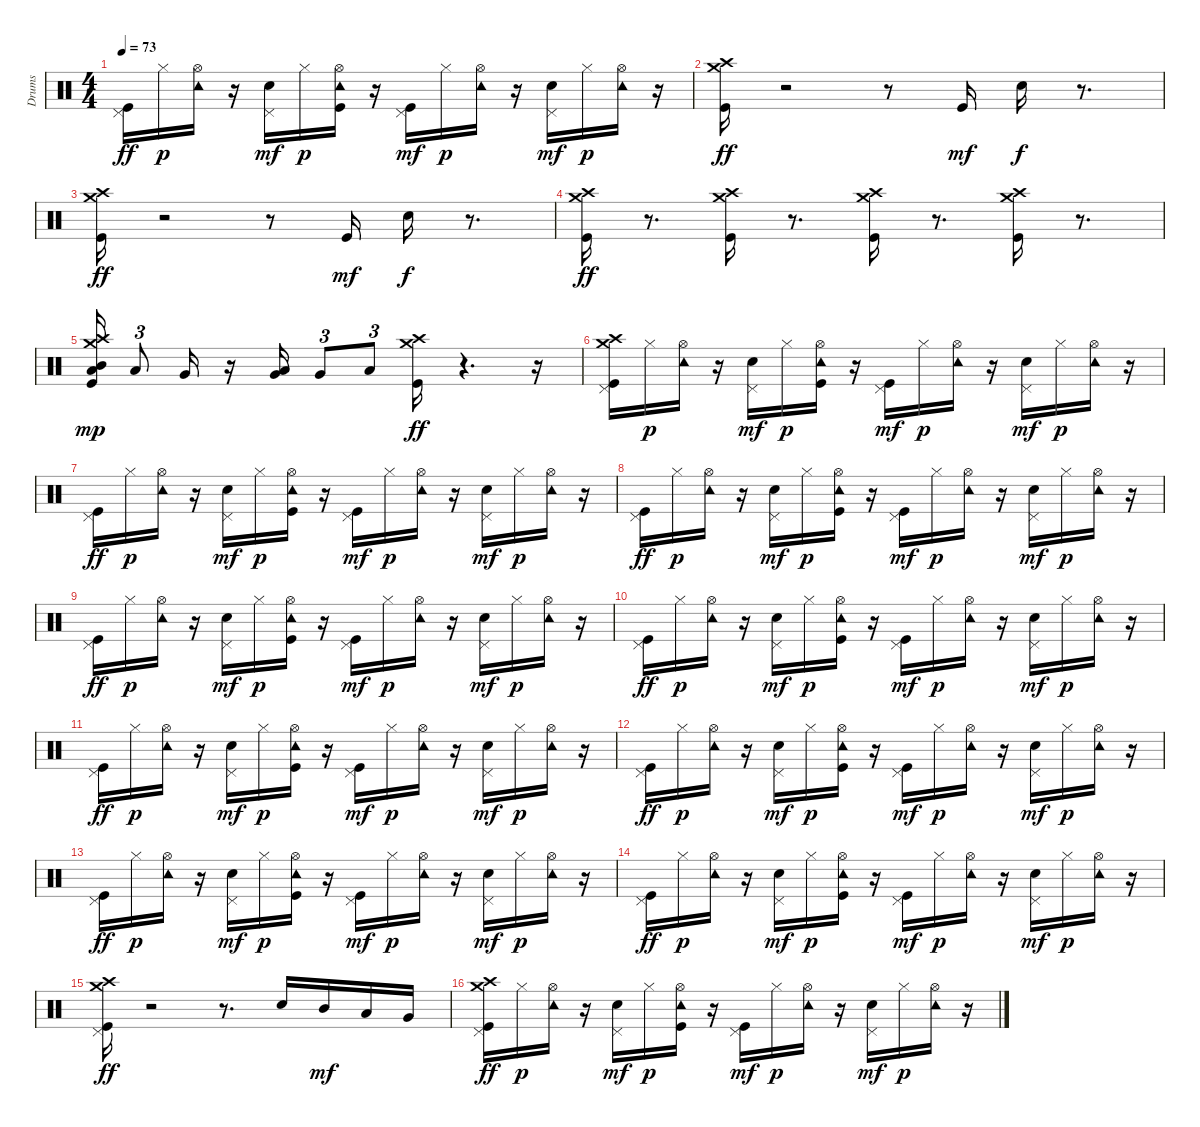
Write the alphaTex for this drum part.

\track ("Drums" "Drums") {instrument percussion}
\staff {score}
\articulation defaults
\ts (4 4)
\tempo 73
\clef neutral
\ks c
("Pedal Hi-Hat (hit)" "Kick (hit)").16{dy ff} "Hi-Hat (closed)".16{dy p} ("Tambourine (hit)" "Hi-Hat (open)").16 r.16 ("Pedal Hi-Hat (hit)" "Snare (hit) 2").16{dy mf} "Hi-Hat (closed)".16{dy p} ("Tambourine (hit)" "Hi-Hat (open)" "Kick (hit)").16 r.16 ("Pedal Hi-Hat (hit)" "Kick (hit)").16{dy mf} "Hi-Hat (closed)".16{dy p} ("Tambourine (hit)" "Hi-Hat (open)").16 r.16 ("Pedal Hi-Hat (hit)" "Snare (hit) 2").16{dy mf} "Hi-Hat (closed)".16{dy p} ("Tambourine (hit)" "Hi-Hat (open)").16 r.16 |
("Crash medium (hit)" "Crash high (hit)" "Kick (hit)").16{dy ff} r.2 r.8 "Kick (hit)".16{dy mf} "Snare (hit) 2".16{dy f} r.8{d} |
("Crash high (hit)" "Crash medium (hit)" "Kick (hit)").16{dy ff} r.2 r.8 "Kick (hit)".16{dy mf} "Snare (hit) 2".16{dy f} r.8{d} |
("Crash high (hit)" "Crash medium (hit)" "Kick (hit)").16{dy ff} r.8{d} ("Crash medium (hit)" "Crash high (hit)" "Kick (hit)").16 r.8{d} ("Crash medium (hit)" "Crash high (hit)" "Kick (hit)").16 r.8{d} ("Crash medium (hit)" "Crash high (hit)" "Kick (hit)").16 r.8{d} |
("Crash medium (hit)" "Crash high (hit)" "Low Tom (hit)" "Kick (hit)" "Mid Tom (hit)").16{dy mp} "Low Tom (hit)".8{tu (3 2)} "Very Low Tom (hit)".16 r.16 ("Very Low Tom (hit)" "Low Tom (hit)").16 "Very Low Tom (hit)".8{tu (3 2)} "Low Floor Tom (hit)".8{tu (3 2)} ("Crash medium (hit)" "Crash high (hit)" "Kick (hit)").16{dy ff} r.4{d} r.16 |
("Crash high (hit)" "Crash medium (hit)" "Pedal Hi-Hat (hit)" "Kick (hit)").16 "Hi-Hat (closed)".16{dy p} ("Tambourine (hit)" "Hi-Hat (open)").16 r.16 ("Pedal Hi-Hat (hit)" "Snare (hit) 2").16{dy mf} "Hi-Hat (closed)".16{dy p} ("Tambourine (hit)" "Hi-Hat (open)" "Kick (hit)").16 r.16 ("Pedal Hi-Hat (hit)" "Kick (hit)").16{dy mf} "Hi-Hat (closed)".16{dy p} ("Tambourine (hit)" "Hi-Hat (open)").16 r.16 ("Pedal Hi-Hat (hit)" "Snare (hit) 2").16{dy mf} "Hi-Hat (closed)".16{dy p} ("Tambourine (hit)" "Hi-Hat (open)").16 r.16 |
("Pedal Hi-Hat (hit)" "Kick (hit)").16{dy ff} "Hi-Hat (closed)".16{dy p} ("Tambourine (hit)" "Hi-Hat (open)").16 r.16 ("Pedal Hi-Hat (hit)" "Snare (hit) 2").16{dy mf} "Hi-Hat (closed)".16{dy p} ("Tambourine (hit)" "Hi-Hat (open)" "Kick (hit)").16 r.16 ("Pedal Hi-Hat (hit)" "Kick (hit)").16{dy mf} "Hi-Hat (closed)".16{dy p} ("Tambourine (hit)" "Hi-Hat (open)").16 r.16 ("Pedal Hi-Hat (hit)" "Snare (hit) 2").16{dy mf} "Hi-Hat (closed)".16{dy p} ("Tambourine (hit)" "Hi-Hat (open)").16 r.16 |
("Pedal Hi-Hat (hit)" "Kick (hit)").16{dy ff} "Hi-Hat (closed)".16{dy p} ("Tambourine (hit)" "Hi-Hat (open)").16 r.16 ("Pedal Hi-Hat (hit)" "Snare (hit) 2").16{dy mf} "Hi-Hat (closed)".16{dy p} ("Tambourine (hit)" "Hi-Hat (open)" "Kick (hit)").16 r.16 ("Pedal Hi-Hat (hit)" "Kick (hit)").16{dy mf} "Hi-Hat (closed)".16{dy p} ("Tambourine (hit)" "Hi-Hat (open)").16 r.16 ("Pedal Hi-Hat (hit)" "Snare (hit) 2").16{dy mf} "Hi-Hat (closed)".16{dy p} ("Tambourine (hit)" "Hi-Hat (open)").16 r.16 |
("Pedal Hi-Hat (hit)" "Kick (hit)").16{dy ff} "Hi-Hat (closed)".16{dy p} ("Tambourine (hit)" "Hi-Hat (open)").16 r.16 ("Pedal Hi-Hat (hit)" "Snare (hit) 2").16{dy mf} "Hi-Hat (closed)".16{dy p} ("Tambourine (hit)" "Hi-Hat (open)" "Kick (hit)").16 r.16 ("Pedal Hi-Hat (hit)" "Kick (hit)").16{dy mf} "Hi-Hat (closed)".16{dy p} ("Tambourine (hit)" "Hi-Hat (open)").16 r.16 ("Pedal Hi-Hat (hit)" "Snare (hit) 2").16{dy mf} "Hi-Hat (closed)".16{dy p} ("Tambourine (hit)" "Hi-Hat (open)").16 r.16 |
("Pedal Hi-Hat (hit)" "Kick (hit)").16{dy ff} "Hi-Hat (closed)".16{dy p} ("Tambourine (hit)" "Hi-Hat (open)").16 r.16 ("Pedal Hi-Hat (hit)" "Snare (hit) 2").16{dy mf} "Hi-Hat (closed)".16{dy p} ("Tambourine (hit)" "Hi-Hat (open)" "Kick (hit)").16 r.16 ("Pedal Hi-Hat (hit)" "Kick (hit)").16{dy mf} "Hi-Hat (closed)".16{dy p} ("Tambourine (hit)" "Hi-Hat (open)").16 r.16 ("Pedal Hi-Hat (hit)" "Snare (hit) 2").16{dy mf} "Hi-Hat (closed)".16{dy p} ("Tambourine (hit)" "Hi-Hat (open)").16 r.16 |
("Pedal Hi-Hat (hit)" "Kick (hit)").16{dy ff} "Hi-Hat (closed)".16{dy p} ("Tambourine (hit)" "Hi-Hat (open)").16 r.16 ("Pedal Hi-Hat (hit)" "Snare (hit) 2").16{dy mf} "Hi-Hat (closed)".16{dy p} ("Tambourine (hit)" "Hi-Hat (open)" "Kick (hit)").16 r.16 ("Pedal Hi-Hat (hit)" "Kick (hit)").16{dy mf} "Hi-Hat (closed)".16{dy p} ("Tambourine (hit)" "Hi-Hat (open)").16 r.16 ("Pedal Hi-Hat (hit)" "Snare (hit) 2").16{dy mf} "Hi-Hat (closed)".16{dy p} ("Tambourine (hit)" "Hi-Hat (open)").16 r.16 |
("Pedal Hi-Hat (hit)" "Kick (hit)").16{dy ff} "Hi-Hat (closed)".16{dy p} ("Tambourine (hit)" "Hi-Hat (open)").16 r.16 ("Pedal Hi-Hat (hit)" "Snare (hit) 2").16{dy mf} "Hi-Hat (closed)".16{dy p} ("Tambourine (hit)" "Hi-Hat (open)" "Kick (hit)").16 r.16 ("Pedal Hi-Hat (hit)" "Kick (hit)").16{dy mf} "Hi-Hat (closed)".16{dy p} ("Tambourine (hit)" "Hi-Hat (open)").16 r.16 ("Pedal Hi-Hat (hit)" "Snare (hit) 2").16{dy mf} "Hi-Hat (closed)".16{dy p} ("Tambourine (hit)" "Hi-Hat (open)").16 r.16 |
("Pedal Hi-Hat (hit)" "Kick (hit)").16{dy ff} "Hi-Hat (closed)".16{dy p} ("Tambourine (hit)" "Hi-Hat (open)").16 r.16 ("Pedal Hi-Hat (hit)" "Snare (hit) 2").16{dy mf} "Hi-Hat (closed)".16{dy p} ("Tambourine (hit)" "Hi-Hat (open)" "Kick (hit)").16 r.16 ("Pedal Hi-Hat (hit)" "Kick (hit)").16{dy mf} "Hi-Hat (closed)".16{dy p} ("Tambourine (hit)" "Hi-Hat (open)").16 r.16 ("Pedal Hi-Hat (hit)" "Snare (hit) 2").16{dy mf} "Hi-Hat (closed)".16{dy p} ("Tambourine (hit)" "Hi-Hat (open)").16 r.16 |
("Pedal Hi-Hat (hit)" "Kick (hit)").16{dy ff} "Hi-Hat (closed)".16{dy p} ("Tambourine (hit)" "Hi-Hat (open)").16 r.16 ("Pedal Hi-Hat (hit)" "Snare (hit) 2").16{dy mf} "Hi-Hat (closed)".16{dy p} ("Tambourine (hit)" "Hi-Hat (open)" "Kick (hit)").16 r.16 ("Pedal Hi-Hat (hit)" "Kick (hit)").16{dy mf} "Hi-Hat (closed)".16{dy p} ("Tambourine (hit)" "Hi-Hat (open)").16 r.16 ("Pedal Hi-Hat (hit)" "Snare (hit) 2").16{dy mf} "Hi-Hat (closed)".16{dy p} ("Tambourine (hit)" "Hi-Hat (open)").16 r.16 |
("Pedal Hi-Hat (hit)" "Crash medium (hit)" "Crash high (hit)" "Kick (hit)").16{dy ff} r.2 r.8{d} "Snare (hit) 2".16 "Mid Tom (hit)".16{dy mf} "Low Tom (hit)".16 "Very Low Tom (hit)".16 |
("Crash high (hit)" "Crash medium (hit)" "Pedal Hi-Hat (hit)" "Kick (hit)").16{dy ff} "Hi-Hat (closed)".16{dy p} ("Tambourine (hit)" "Hi-Hat (open)").16 r.16 ("Pedal Hi-Hat (hit)" "Snare (hit) 2").16{dy mf} "Hi-Hat (closed)".16{dy p} ("Tambourine (hit)" "Hi-Hat (open)" "Kick (hit)").16 r.16 ("Pedal Hi-Hat (hit)" "Kick (hit)").16{dy mf} "Hi-Hat (closed)".16{dy p} ("Tambourine (hit)" "Hi-Hat (open)").16 r.16 ("Pedal Hi-Hat (hit)" "Snare (hit) 2").16{dy mf} "Hi-Hat (closed)".16{dy p} ("Tambourine (hit)" "Hi-Hat (open)").16 r.16
